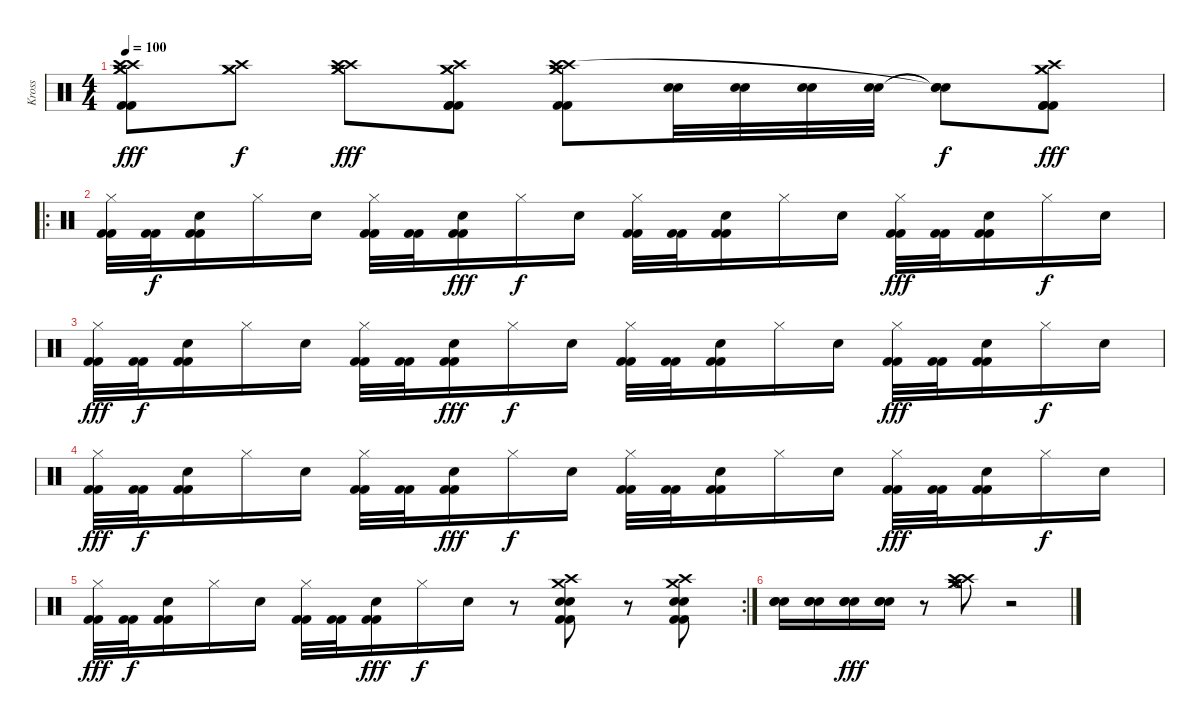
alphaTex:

\track ("Kross" "Kross") {instrument percussion}
\staff {score}
\articulation defaults
\ts (4 4)
\tempo 100
\clef neutral
\ks c
("Crash medium (hit)" "Crash medium (hit)" "Crash high (hit)" "Crash high (hit)" "Kick (hit) 2" "Kick (hit) 2").8{dy fff} ("Crash medium (hit)" "Crash medium (hit)" "Crash high (hit)").8{dy f} ("Crash medium (hit)" "Crash medium (hit)" "Crash high (hit)" "Crash high (hit)").8{dy fff} ("Crash medium (hit)" "Crash medium (hit)" "Crash high (hit)" "Kick (hit) 2" "Kick (hit) 2" "Kick (hit) 2").8 ("Crash medium (hit)" "Crash medium (hit)" "Crash high (hit)" "Crash high (hit)" "Kick (hit) 2" "Kick (hit) 2").8 ("Snare (hit) 2" "Snare (hit) 2").32 ("Snare (hit) 2" "Snare (hit) 2").32 ("Snare (hit) 2" "Snare (hit) 2").32 ("Snare (hit) 2" "Snare (hit) 2").32 ("Snare (hit)"{t} "Snare (hit)"{t} "Snare (hit)"{t}).8{dy f} ("Crash medium (hit)" "Crash medium (hit)" "Crash high (hit)" "Kick (hit) 2" "Kick (hit) 2" "Kick (hit) 2").8{dy fff} |
\ro
("Kick (hit) 2" "Kick (hit) 2" "Hi-Hat (closed)").32 ("Kick (hit) 2" "Kick (hit) 2").32{dy f} ("Kick (hit) 2" "Kick (hit) 2" "Snare (hit) 2").16 "Hi-Hat (closed)".16 "Snare (hit) 2".16 ("Kick (hit) 2" "Kick (hit) 2" "Hi-Hat (closed)").32 ("Kick (hit) 2" "Kick (hit) 2").32 ("Kick (hit) 2" "Kick (hit) 2" "Snare (hit) 2").16{dy fff} "Hi-Hat (closed)".16{dy f} "Snare (hit) 2".16 ("Kick (hit) 2" "Kick (hit) 2" "Hi-Hat (closed)").32 ("Kick (hit) 2" "Kick (hit) 2").32 ("Kick (hit) 2" "Kick (hit) 2" "Snare (hit) 2").16 "Hi-Hat (closed)".16 "Snare (hit) 2".16 ("Kick (hit) 2" "Kick (hit) 2" "Hi-Hat (closed)").32{dy fff} ("Kick (hit) 2" "Kick (hit) 2").32 ("Kick (hit) 2" "Kick (hit) 2" "Snare (hit) 2").16 "Hi-Hat (closed)".16{dy f} "Snare (hit) 2".16 |
("Kick (hit) 2" "Kick (hit) 2" "Hi-Hat (closed)").32{dy fff} ("Kick (hit) 2" "Kick (hit) 2").32{dy f} ("Kick (hit) 2" "Kick (hit) 2" "Snare (hit) 2").16 "Hi-Hat (closed)".16 "Snare (hit) 2".16 ("Kick (hit) 2" "Kick (hit) 2" "Hi-Hat (closed)").32 ("Kick (hit) 2" "Kick (hit) 2").32 ("Kick (hit) 2" "Kick (hit) 2" "Snare (hit) 2").16{dy fff} "Hi-Hat (closed)".16{dy f} "Snare (hit) 2".16 ("Kick (hit) 2" "Kick (hit) 2" "Hi-Hat (closed)").32 ("Kick (hit) 2" "Kick (hit) 2").32 ("Kick (hit) 2" "Kick (hit) 2" "Snare (hit) 2").16 "Hi-Hat (closed)".16 "Snare (hit) 2".16 ("Kick (hit) 2" "Kick (hit) 2" "Hi-Hat (closed)").32{dy fff} ("Kick (hit) 2" "Kick (hit) 2").32 ("Kick (hit) 2" "Kick (hit) 2" "Snare (hit) 2").16 "Hi-Hat (closed)".16{dy f} "Snare (hit) 2".16 |
("Kick (hit) 2" "Kick (hit) 2" "Hi-Hat (closed)").32{dy fff} ("Kick (hit) 2" "Kick (hit) 2").32{dy f} ("Kick (hit) 2" "Kick (hit) 2" "Snare (hit) 2").16 "Hi-Hat (closed)".16 "Snare (hit) 2".16 ("Kick (hit) 2" "Kick (hit) 2" "Hi-Hat (closed)").32 ("Kick (hit) 2" "Kick (hit) 2").32 ("Kick (hit) 2" "Kick (hit) 2" "Snare (hit) 2").16{dy fff} "Hi-Hat (closed)".16{dy f} "Snare (hit) 2".16 ("Kick (hit) 2" "Kick (hit) 2" "Hi-Hat (closed)").32 ("Kick (hit) 2" "Kick (hit) 2").32 ("Kick (hit) 2" "Kick (hit) 2" "Snare (hit) 2").16 "Hi-Hat (closed)".16 "Snare (hit) 2".16 ("Kick (hit) 2" "Kick (hit) 2" "Hi-Hat (closed)").32{dy fff} ("Kick (hit) 2" "Kick (hit) 2").32 ("Kick (hit) 2" "Kick (hit) 2" "Snare (hit) 2").16 "Hi-Hat (closed)".16{dy f} "Snare (hit) 2".16 |
\rc 2
("Kick (hit) 2" "Kick (hit) 2" "Hi-Hat (closed)").32{dy fff} ("Kick (hit) 2" "Kick (hit) 2").32{dy f} ("Kick (hit) 2" "Kick (hit) 2" "Snare (hit) 2").16 "Hi-Hat (closed)".16 "Snare (hit) 2".16 ("Kick (hit) 2" "Kick (hit) 2" "Hi-Hat (closed)").32 ("Kick (hit) 2" "Kick (hit) 2").32 ("Kick (hit) 2" "Kick (hit) 2" "Snare (hit) 2").16{dy fff} "Hi-Hat (closed)".16{dy f} "Snare (hit) 2".16 r.8 ("Crash high (hit)" "Crash medium (hit)" "Snare (hit) 2" "Snare (hit) 2" "Kick (hit) 2" "Kick (hit) 2").8 r.8 ("Crash medium (hit)" "Crash high (hit)" "Snare (hit) 2" "Snare (hit) 2" "Kick (hit) 2" "Kick (hit) 2").8 |
("Snare (hit) 2" "Snare (hit) 2" "Snare (hit) 2").16 ("Snare (hit) 2" "Snare (hit) 2" "Snare (hit) 2").16 ("Snare (hit) 2" "Snare (hit) 2" "Snare (hit) 2").16{dy fff} ("Snare (hit) 2" "Snare (hit) 2" "Snare (hit) 2").16 r.8 ("Crash medium (hit)" "Crash medium (hit)" "Crash high (hit)" "Crash high (hit)" "Hi-Hat (open)" "Hi-Hat (open)").8 r.2
